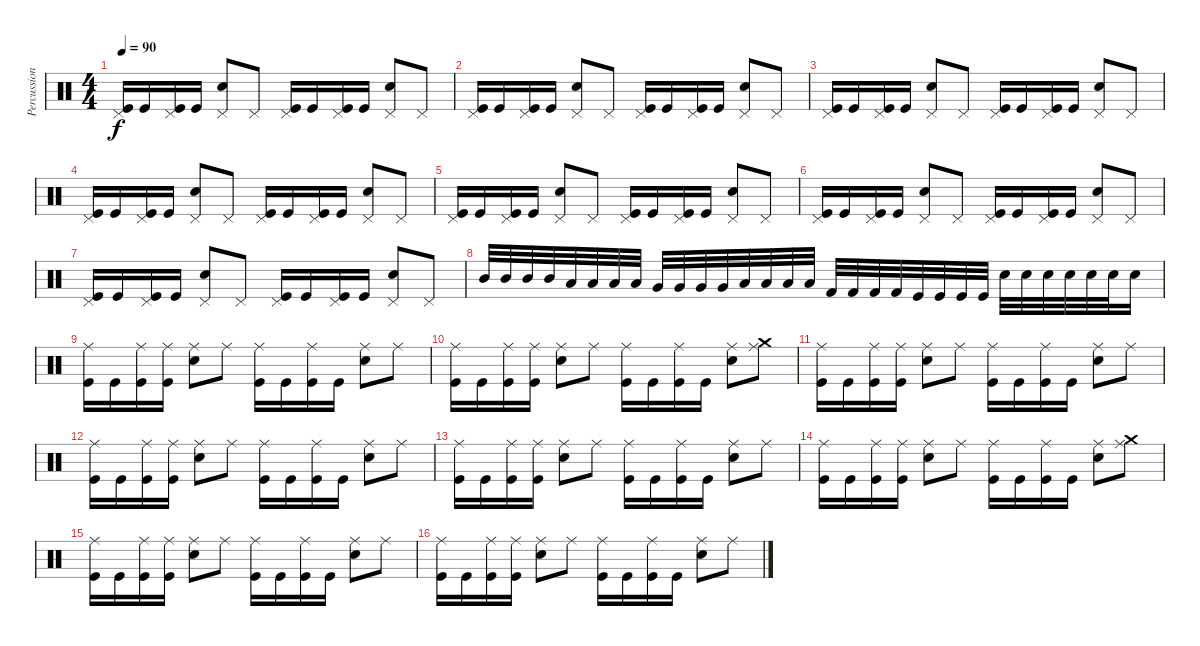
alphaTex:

\track ("Percussions" "Percussion") {instrument percussion}
\staff {score}
\articulation defaults
\ts (4 4)
\tempo 90
\clef neutral
\ks c
("Pedal Hi-Hat (hit)" "Kick (hit)").16{dy f} "Kick (hit)".16 ("Pedal Hi-Hat (hit)" "Kick (hit)").16 "Kick (hit)".16 ("Pedal Hi-Hat (hit)" "Electric Snare (hit)").8 "Pedal Hi-Hat (hit)".8 ("Pedal Hi-Hat (hit)" "Kick (hit)").16 "Kick (hit)".16 ("Pedal Hi-Hat (hit)" "Kick (hit)").16 "Kick (hit)".16 ("Pedal Hi-Hat (hit)" "Electric Snare (hit)").8 "Pedal Hi-Hat (hit)".8 |
("Pedal Hi-Hat (hit)" "Kick (hit)").16 "Kick (hit)".16 ("Pedal Hi-Hat (hit)" "Kick (hit)").16 "Kick (hit)".16 ("Pedal Hi-Hat (hit)" "Electric Snare (hit)").8 "Pedal Hi-Hat (hit)".8 ("Pedal Hi-Hat (hit)" "Kick (hit)").16 "Kick (hit)".16 ("Pedal Hi-Hat (hit)" "Kick (hit)").16 "Kick (hit)".16 ("Pedal Hi-Hat (hit)" "Electric Snare (hit)").8 "Pedal Hi-Hat (hit)".8 |
("Pedal Hi-Hat (hit)" "Kick (hit)").16 "Kick (hit)".16 ("Pedal Hi-Hat (hit)" "Kick (hit)").16 "Kick (hit)".16 ("Pedal Hi-Hat (hit)" "Electric Snare (hit)").8 "Pedal Hi-Hat (hit)".8 ("Pedal Hi-Hat (hit)" "Kick (hit)").16 "Kick (hit)".16 ("Pedal Hi-Hat (hit)" "Kick (hit)").16 "Kick (hit)".16 ("Pedal Hi-Hat (hit)" "Electric Snare (hit)").8 "Pedal Hi-Hat (hit)".8 |
("Pedal Hi-Hat (hit)" "Kick (hit)").16 "Kick (hit)".16 ("Pedal Hi-Hat (hit)" "Kick (hit)").16 "Kick (hit)".16 ("Pedal Hi-Hat (hit)" "Electric Snare (hit)").8 "Pedal Hi-Hat (hit)".8 ("Pedal Hi-Hat (hit)" "Kick (hit)").16 "Kick (hit)".16 ("Pedal Hi-Hat (hit)" "Kick (hit)").16 "Kick (hit)".16 ("Pedal Hi-Hat (hit)" "Electric Snare (hit)").8 "Pedal Hi-Hat (hit)".8 |
("Pedal Hi-Hat (hit)" "Kick (hit)").16 "Kick (hit)".16 ("Pedal Hi-Hat (hit)" "Kick (hit)").16 "Kick (hit)".16 ("Pedal Hi-Hat (hit)" "Electric Snare (hit)").8 "Pedal Hi-Hat (hit)".8 ("Pedal Hi-Hat (hit)" "Kick (hit)").16 "Kick (hit)".16 ("Pedal Hi-Hat (hit)" "Kick (hit)").16 "Kick (hit)".16 ("Pedal Hi-Hat (hit)" "Electric Snare (hit)").8 "Pedal Hi-Hat (hit)".8 |
("Pedal Hi-Hat (hit)" "Kick (hit)").16 "Kick (hit)".16 ("Pedal Hi-Hat (hit)" "Kick (hit)").16 "Kick (hit)".16 ("Pedal Hi-Hat (hit)" "Electric Snare (hit)").8 "Pedal Hi-Hat (hit)".8 ("Pedal Hi-Hat (hit)" "Kick (hit)").16 "Kick (hit)".16 ("Pedal Hi-Hat (hit)" "Kick (hit)").16 "Kick (hit)".16 ("Pedal Hi-Hat (hit)" "Electric Snare (hit)").8 "Pedal Hi-Hat (hit)".8 |
("Pedal Hi-Hat (hit)" "Kick (hit)").16 "Kick (hit)".16 ("Pedal Hi-Hat (hit)" "Kick (hit)").16 "Kick (hit)".16 ("Pedal Hi-Hat (hit)" "Electric Snare (hit)").8 "Pedal Hi-Hat (hit)".8 ("Pedal Hi-Hat (hit)" "Kick (hit)").16 "Kick (hit)".16 ("Pedal Hi-Hat (hit)" "Kick (hit)").16 "Kick (hit)".16 ("Pedal Hi-Hat (hit)" "Electric Snare (hit)").8 "Pedal Hi-Hat (hit)".8 |
"Mid Tom (hit)".32 "Mid Tom (hit)".32 "Mid Tom (hit)".32 "Mid Tom (hit)".32 "Low Tom (hit)".32 "Low Tom (hit)".32 "Low Tom (hit)".32 "Low Tom (hit)".32 "Very Low Tom (hit)".32 "Very Low Tom (hit)".32 "Very Low Tom (hit)".32 "Very Low Tom (hit)".32 "Low Floor Tom (hit)".32 "Low Floor Tom (hit)".32 "Low Floor Tom (hit)".32 "Low Floor Tom (hit)".32 "Kick (hit) 2".32 "Kick (hit) 2".32 "Kick (hit) 2".32 "Kick (hit) 2".32 "Kick (hit)".32 "Kick (hit)".32 "Kick (hit)".32 "Kick (hit)".32 "Electric Snare (hit)".32 "Electric Snare (hit)".32 "Electric Snare (hit)".32 "Electric Snare (hit)".32 "Electric Snare (hit)".32 "Electric Snare (hit)".32 "Electric Snare (hit)".16 |
("Ride (middle)" "Kick (hit)").16 "Kick (hit)".16 ("Ride (middle)" "Kick (hit)").16 ("Ride (middle)" "Kick (hit)").16 ("Ride (middle)" "Electric Snare (hit)").8 "Ride (middle)".8 ("Ride (middle)" "Kick (hit)").16 "Kick (hit)".16 ("Ride (middle)" "Kick (hit)").16 "Kick (hit)".16 ("Ride (middle)" "Electric Snare (hit)").8 "Ride (middle)".8 |
("Ride (middle)" "Kick (hit)").16 "Kick (hit)".16 ("Ride (middle)" "Kick (hit)").16 ("Ride (middle)" "Kick (hit)").16 ("Ride (middle)" "Electric Snare (hit)").8 "Ride (middle)".8 ("Ride (middle)" "Kick (hit)").16 "Kick (hit)".16 ("Ride (middle)" "Kick (hit)").16 "Kick (hit)".16 ("Ride (middle)" "Electric Snare (hit)").8 ("Ride (middle)" "Crash medium (hit)").8 |
("Ride (middle)" "Kick (hit)").16 "Kick (hit)".16 ("Ride (middle)" "Kick (hit)").16 ("Ride (middle)" "Kick (hit)").16 ("Ride (middle)" "Electric Snare (hit)").8 "Ride (middle)".8 ("Ride (middle)" "Kick (hit)").16 "Kick (hit)".16 ("Ride (middle)" "Kick (hit)").16 "Kick (hit)".16 ("Ride (middle)" "Electric Snare (hit)").8 "Ride (middle)".8 |
("Ride (middle)" "Kick (hit)").16 "Kick (hit)".16 ("Ride (middle)" "Kick (hit)").16 ("Ride (middle)" "Kick (hit)").16 ("Ride (middle)" "Electric Snare (hit)").8 "Ride (middle)".8 ("Ride (middle)" "Kick (hit)").16 "Kick (hit)".16 ("Ride (middle)" "Kick (hit)").16 "Kick (hit)".16 ("Ride (middle)" "Electric Snare (hit)").8 "Ride (middle)".8 |
("Ride (middle)" "Kick (hit)").16 "Kick (hit)".16 ("Ride (middle)" "Kick (hit)").16 ("Ride (middle)" "Kick (hit)").16 ("Ride (middle)" "Electric Snare (hit)").8 "Ride (middle)".8 ("Ride (middle)" "Kick (hit)").16 "Kick (hit)".16 ("Ride (middle)" "Kick (hit)").16 "Kick (hit)".16 ("Ride (middle)" "Electric Snare (hit)").8 "Ride (middle)".8 |
("Ride (middle)" "Kick (hit)").16 "Kick (hit)".16 ("Ride (middle)" "Kick (hit)").16 ("Ride (middle)" "Kick (hit)").16 ("Ride (middle)" "Electric Snare (hit)").8 "Ride (middle)".8 ("Ride (middle)" "Kick (hit)").16 "Kick (hit)".16 ("Ride (middle)" "Kick (hit)").16 "Kick (hit)".16 ("Ride (middle)" "Electric Snare (hit)").8 ("Ride (middle)" "Crash medium (hit)").8 |
("Ride (middle)" "Kick (hit)").16 "Kick (hit)".16 ("Ride (middle)" "Kick (hit)").16 ("Ride (middle)" "Kick (hit)").16 ("Ride (middle)" "Electric Snare (hit)").8 "Ride (middle)".8 ("Ride (middle)" "Kick (hit)").16 "Kick (hit)".16 ("Ride (middle)" "Kick (hit)").16 "Kick (hit)".16 ("Ride (middle)" "Electric Snare (hit)").8 "Ride (middle)".8 |
("Ride (middle)" "Kick (hit)").16 "Kick (hit)".16 ("Ride (middle)" "Kick (hit)").16 ("Ride (middle)" "Kick (hit)").16 ("Ride (middle)" "Electric Snare (hit)").8 "Ride (middle)".8 ("Ride (middle)" "Kick (hit)").16 "Kick (hit)".16 ("Ride (middle)" "Kick (hit)").16 "Kick (hit)".16 ("Ride (middle)" "Electric Snare (hit)").8 "Ride (middle)".8
